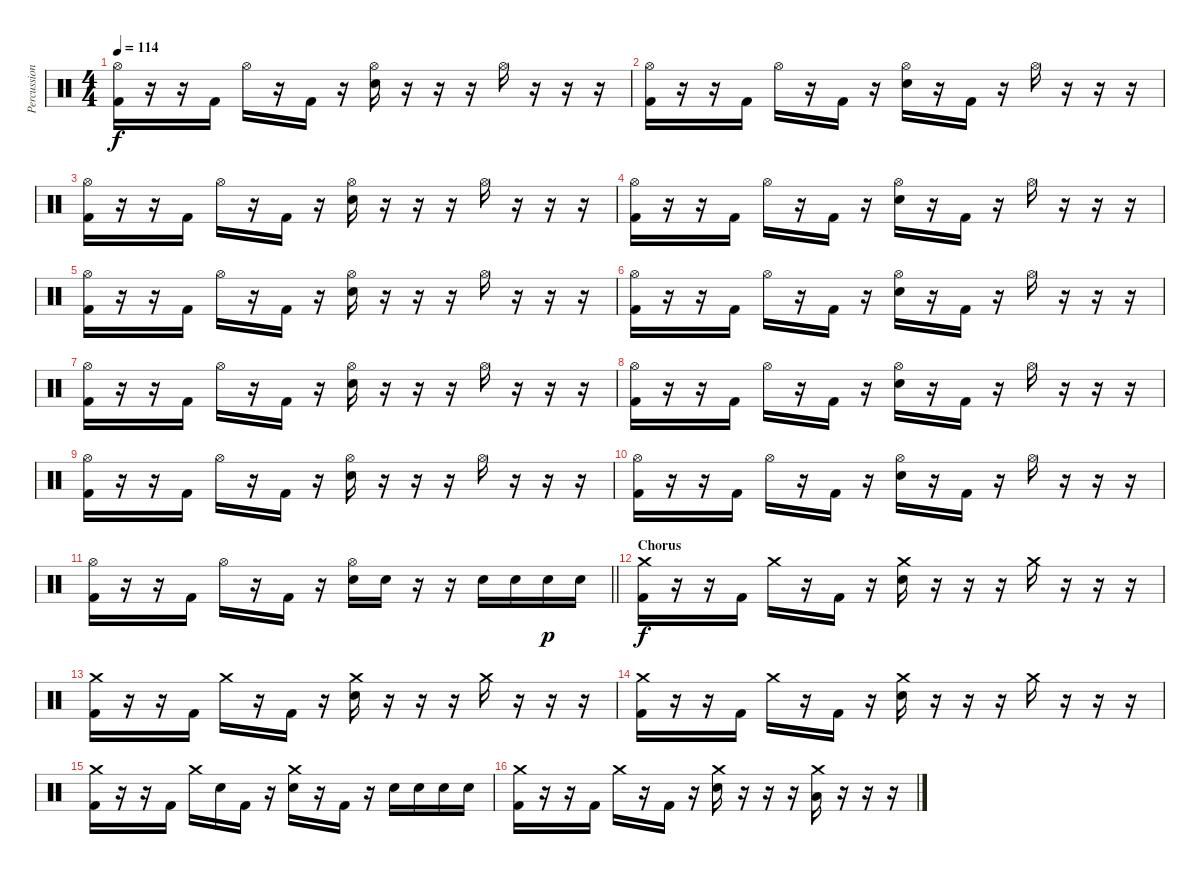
\track ("Percussion" "Percussion") {instrument percussion}
\staff {score}
\articulation defaults
\ts (4 4)
\tempo 114
\clef neutral
\ks c
("Hi-Hat (open)" "Kick (hit) 2").16{dy f} r.16 r.16 "Kick (hit) 2".16 "Hi-Hat (open)".16 r.16 "Kick (hit) 2".16 r.16 ("Hi-Hat (open)" "Electric Snare (hit)").16 r.16 r.16 r.16 "Hi-Hat (open)".16 r.16 r.16 r.16 |
("Hi-Hat (open)" "Kick (hit) 2").16 r.16 r.16 "Kick (hit) 2".16 "Hi-Hat (open)".16 r.16 "Kick (hit) 2".16 r.16 ("Hi-Hat (open)" "Electric Snare (hit)").16 r.16 "Kick (hit) 2".16 r.16 "Hi-Hat (open)".16 r.16 r.16 r.16 |
("Hi-Hat (open)" "Kick (hit) 2").16 r.16 r.16 "Kick (hit) 2".16 "Hi-Hat (open)".16 r.16 "Kick (hit) 2".16 r.16 ("Hi-Hat (open)" "Electric Snare (hit)").16 r.16 r.16 r.16 "Hi-Hat (open)".16 r.16 r.16 r.16 |
("Hi-Hat (open)" "Kick (hit) 2").16 r.16 r.16 "Kick (hit) 2".16 "Hi-Hat (open)".16 r.16 "Kick (hit) 2".16 r.16 ("Hi-Hat (open)" "Electric Snare (hit)").16 r.16 "Kick (hit) 2".16 r.16 "Hi-Hat (open)".16 r.16 r.16 r.16 |
("Hi-Hat (open)" "Kick (hit) 2").16 r.16 r.16 "Kick (hit) 2".16 "Hi-Hat (open)".16 r.16 "Kick (hit) 2".16 r.16 ("Hi-Hat (open)" "Electric Snare (hit)").16 r.16 r.16 r.16 "Hi-Hat (open)".16 r.16 r.16 r.16 |
("Hi-Hat (open)" "Kick (hit) 2").16 r.16 r.16 "Kick (hit) 2".16 "Hi-Hat (open)".16 r.16 "Kick (hit) 2".16 r.16 ("Hi-Hat (open)" "Electric Snare (hit)").16 r.16 "Kick (hit) 2".16 r.16 "Hi-Hat (open)".16 r.16 r.16 r.16 |
("Hi-Hat (open)" "Kick (hit) 2").16 r.16 r.16 "Kick (hit) 2".16 "Hi-Hat (open)".16 r.16 "Kick (hit) 2".16 r.16 ("Hi-Hat (open)" "Electric Snare (hit)").16 r.16 r.16 r.16 "Hi-Hat (open)".16 r.16 r.16 r.16 |
("Hi-Hat (open)" "Kick (hit) 2").16 r.16 r.16 "Kick (hit) 2".16 "Hi-Hat (open)".16 r.16 "Kick (hit) 2".16 r.16 ("Hi-Hat (open)" "Electric Snare (hit)").16 r.16 "Kick (hit) 2".16 r.16 "Hi-Hat (open)".16 r.16 r.16 r.16 |
("Hi-Hat (open)" "Kick (hit) 2").16 r.16 r.16 "Kick (hit) 2".16 "Hi-Hat (open)".16 r.16 "Kick (hit) 2".16 r.16 ("Hi-Hat (open)" "Electric Snare (hit)").16 r.16 r.16 r.16 "Hi-Hat (open)".16 r.16 r.16 r.16 |
("Hi-Hat (open)" "Kick (hit) 2").16 r.16 r.16 "Kick (hit) 2".16 "Hi-Hat (open)".16 r.16 "Kick (hit) 2".16 r.16 ("Hi-Hat (open)" "Electric Snare (hit)").16 r.16 "Kick (hit) 2".16 r.16 "Hi-Hat (open)".16 r.16 r.16 r.16 |
\barLineRight lightlight
("Hi-Hat (open)" "Kick (hit) 2").16 r.16 r.16 "Kick (hit) 2".16 "Hi-Hat (open)".16 r.16 "Kick (hit) 2".16 r.16 ("Hi-Hat (open)" "Electric Snare (hit)").16 "Electric Snare (hit)".16 r.16 r.16 "Electric Snare (hit)".16 "Electric Snare (hit)".16 "Electric Snare (hit)".16{dy p} "Electric Snare (hit)".16 |
\section ("" "Chorus")
("Crash medium (hit)" "Kick (hit) 2").16{dy f} r.16 r.16 "Kick (hit) 2".16 "Crash medium (hit)".16 r.16 "Kick (hit) 2".16 r.16 ("Crash medium (hit)" "Electric Snare (hit)").16 r.16 r.16 r.16 "Crash medium (hit)".16 r.16 r.16 r.16 |
("Crash medium (hit)" "Kick (hit) 2").16 r.16 r.16 "Kick (hit) 2".16 "Crash medium (hit)".16 r.16 "Kick (hit) 2".16 r.16 ("Crash medium (hit)" "Electric Snare (hit)").16 r.16 r.16 r.16 "Crash medium (hit)".16 r.16 r.16 r.16 |
("Crash medium (hit)" "Kick (hit) 2").16 r.16 r.16 "Kick (hit) 2".16 "Crash medium (hit)".16 r.16 "Kick (hit) 2".16 r.16 ("Crash medium (hit)" "Electric Snare (hit)").16 r.16 r.16 r.16 "Crash medium (hit)".16 r.16 r.16 r.16 |
("Crash medium (hit)" "Kick (hit) 2").16 r.16 r.16 "Kick (hit) 2".16 "Crash medium (hit)".16 "Electric Snare (hit)".16 "Kick (hit) 2".16 r.16 ("Crash medium (hit)" "Electric Snare (hit)").16 r.16 "Kick (hit) 2".16 r.16 "Electric Snare (hit)".16 "Electric Snare (hit)".16 "Electric Snare (hit)".16 "Electric Snare (hit)".16 |
("Crash medium (hit)" "Kick (hit) 2").16 r.16 r.16 "Kick (hit) 2".16 "Crash medium (hit)".16 r.16 "Kick (hit) 2".16 r.16 ("Crash medium (hit)" "Electric Snare (hit)").16 r.16 r.16 r.16 ("Low Tom (hit)" "Crash medium (hit)").16 r.16 r.16 r.16
